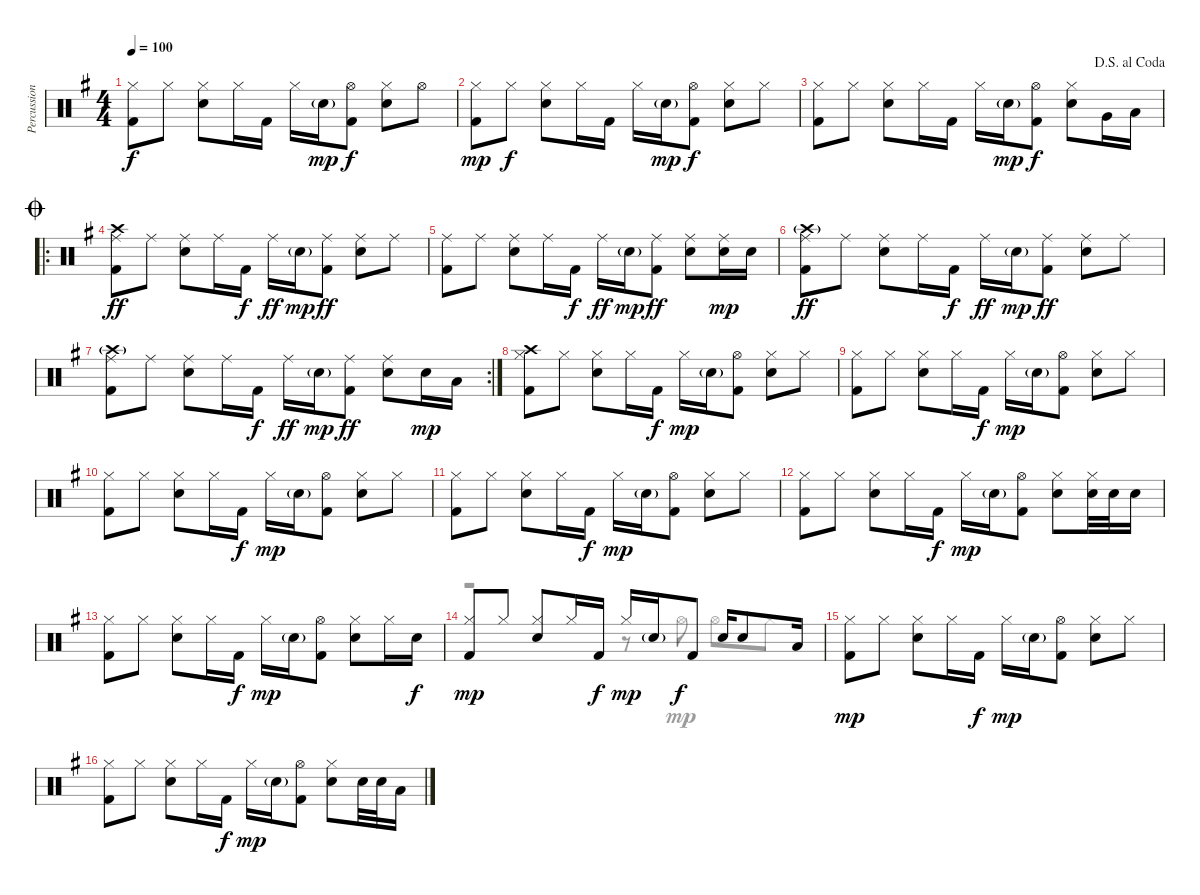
\track ("Percussion" "Percussion") {instrument percussion}
\staff {score}
\articulation defaults
\voice
\ts (4 4)
\tempo 100
\clef neutral
\ks g
("Hi-Hat (closed)" "Kick (hit) 2").8{dy f} "Hi-Hat (closed)".8 ("Hi-Hat (closed)" "Electric Snare (hit)").8 "Hi-Hat (closed)".16 "Kick (hit) 2".16 "Hi-Hat (closed)".16 "Electric Snare (hit)"{g}.16{dy mp} ("Hi-Hat (open)" "Kick (hit) 2").8{dy f} ("Hi-Hat (closed)" "Electric Snare (hit)").8 "Hi-Hat (open)".8 |
("Hi-Hat (closed)" "Kick (hit) 2").8{dy mp} "Hi-Hat (closed)".8{dy f} ("Hi-Hat (closed)" "Electric Snare (hit)").8 "Hi-Hat (closed)".16 "Kick (hit) 2".16 "Hi-Hat (closed)".16 "Electric Snare (hit)"{g}.16{dy mp} ("Hi-Hat (open)" "Kick (hit) 2").8{dy f} ("Hi-Hat (closed)" "Electric Snare (hit)").8 "Hi-Hat (closed)".8 |
\jump dalsegnoalcoda
("Hi-Hat (closed)" "Kick (hit) 2").8 "Hi-Hat (closed)".8 ("Hi-Hat (closed)" "Electric Snare (hit)").8 "Hi-Hat (closed)".16 "Kick (hit) 2".16 "Hi-Hat (closed)".16 "Electric Snare (hit)"{g}.16{dy mp} ("Hi-Hat (open)" "Kick (hit) 2").8{dy f} ("Hi-Hat (closed)" "Electric Snare (hit)").8 "Very Low Tom (hit)".16 "Low Floor Tom (hit)".16 |
\ro
\jump coda
("Crash high (hit)" "Ride (middle)" "Kick (hit) 2").8{dy ff} "Ride (middle)".8 ("Ride (middle)" "Electric Snare (hit)").8 "Ride (middle)".16 "Kick (hit) 2".16{dy f} "Ride (middle)".16{dy ff} "Electric Snare (hit)"{g}.16{dy mp} ("Ride (middle)" "Kick (hit) 2").8{dy ff} ("Ride (middle)" "Electric Snare (hit)").8 "Ride (middle)".8 |
("Ride (middle)" "Kick (hit) 2").8 "Ride (middle)".8 ("Ride (middle)" "Electric Snare (hit)").8 "Ride (middle)".16 "Kick (hit) 2".16{dy f} "Ride (middle)".16{dy ff} "Electric Snare (hit)"{g}.16{dy mp} ("Ride (middle)" "Kick (hit) 2").8{dy ff} ("Ride (middle)" "Electric Snare (hit)").8 ("Ride (middle)" "Electric Snare (hit)").16{dy mp} "Electric Snare (hit)".16 |
("Crash high (hit)"{g} "Ride (middle)" "Kick (hit) 2").8{dy ff} "Ride (middle)".8 ("Ride (middle)" "Electric Snare (hit)").8 "Ride (middle)".16 "Kick (hit) 2".16{dy f} "Ride (middle)".16{dy ff} "Electric Snare (hit)"{g}.16{dy mp} ("Ride (middle)" "Kick (hit) 2").8{dy ff} ("Ride (middle)" "Electric Snare (hit)").8 "Ride (middle)".8 |
\rc 2
("Crash high (hit)"{g} "Ride (middle)" "Kick (hit) 2").8 "Ride (middle)".8 ("Ride (middle)" "Electric Snare (hit)").8 "Ride (middle)".16 "Kick (hit) 2".16{dy f} "Ride (middle)".16{dy ff} "Electric Snare (hit)"{g}.16{dy mp} ("Ride (middle)" "Kick (hit) 2").8{dy ff} ("Ride (middle)" "Electric Snare (hit)").8 "Electric Snare (hit)".16{dy mp} "Low Floor Tom (hit)".16 |
("Crash high (hit)" "Hi-Hat (closed)" "Kick (hit) 2").8 "Hi-Hat (closed)".8 ("Hi-Hat (closed)" "Electric Snare (hit)").8 "Hi-Hat (closed)".16 "Kick (hit) 2".16{dy f} "Hi-Hat (closed)".16{dy mp} "Electric Snare (hit)"{g}.16 ("Hi-Hat (open)" "Kick (hit) 2").8 ("Hi-Hat (closed)" "Electric Snare (hit)").8 "Hi-Hat (closed)".8 |
("Hi-Hat (closed)" "Kick (hit) 2").8 "Hi-Hat (closed)".8 ("Hi-Hat (closed)" "Electric Snare (hit)").8 "Hi-Hat (closed)".16 "Kick (hit) 2".16{dy f} "Hi-Hat (closed)".16{dy mp} "Electric Snare (hit)"{g}.16 ("Hi-Hat (open)" "Kick (hit) 2").8 ("Hi-Hat (closed)" "Electric Snare (hit)").8 "Hi-Hat (closed)".8 |
("Hi-Hat (closed)" "Kick (hit) 2").8 "Hi-Hat (closed)".8 ("Hi-Hat (closed)" "Electric Snare (hit)").8 "Hi-Hat (closed)".16 "Kick (hit) 2".16{dy f} "Hi-Hat (closed)".16{dy mp} "Electric Snare (hit)"{g}.16 ("Hi-Hat (open)" "Kick (hit) 2").8 ("Hi-Hat (closed)" "Electric Snare (hit)").8 "Hi-Hat (closed)".8 |
("Hi-Hat (closed)" "Kick (hit) 2").8 "Hi-Hat (closed)".8 ("Hi-Hat (closed)" "Electric Snare (hit)").8 "Hi-Hat (closed)".16 "Kick (hit) 2".16{dy f} "Hi-Hat (closed)".16{dy mp} "Electric Snare (hit)"{g}.16 ("Hi-Hat (open)" "Kick (hit) 2").8 ("Hi-Hat (closed)" "Electric Snare (hit)").8 "Hi-Hat (closed)".8 |
("Hi-Hat (closed)" "Kick (hit) 2").8 "Hi-Hat (closed)".8 ("Hi-Hat (closed)" "Electric Snare (hit)").8 "Hi-Hat (closed)".16 "Kick (hit) 2".16{dy f} "Hi-Hat (closed)".16{dy mp} "Electric Snare (hit)"{g}.16 ("Hi-Hat (open)" "Kick (hit) 2").8 ("Hi-Hat (closed)" "Electric Snare (hit)").8 ("Hi-Hat (closed)" "Electric Snare (hit)").32 "Electric Snare (hit)".32 "Electric Snare (hit)".16 |
("Hi-Hat (closed)" "Kick (hit) 2").8 "Hi-Hat (closed)".8 ("Hi-Hat (closed)" "Electric Snare (hit)").8 "Hi-Hat (closed)".16 "Kick (hit) 2".16{dy f} "Hi-Hat (closed)".16{dy mp} "Electric Snare (hit)"{g}.16 ("Hi-Hat (open)" "Kick (hit) 2").8 ("Hi-Hat (closed)" "Electric Snare (hit)").8 "Hi-Hat (closed)".16 "Electric Snare (hit)".16{dy f} |
("Hi-Hat (closed)" "Kick (hit) 2").8{dy mp} "Hi-Hat (closed)".8 ("Hi-Hat (closed)" "Electric Snare (hit)").8 "Hi-Hat (closed)".16 "Kick (hit) 2".16{dy f} "Hi-Hat (closed)".16{dy mp} "Electric Snare (hit)"{g}.16 "Kick (hit) 2".8{dy f} "Electric Snare (hit)".16 "Electric Snare (hit)".8 "Low Floor Tom (hit)".16 |
("Hi-Hat (closed)" "Kick (hit) 2").8{dy mp} "Hi-Hat (closed)".8 ("Hi-Hat (closed)" "Electric Snare (hit)").8 "Hi-Hat (closed)".16 "Kick (hit) 2".16{dy f} "Hi-Hat (closed)".16{dy mp} "Electric Snare (hit)"{g}.16 ("Hi-Hat (open)" "Kick (hit) 2").8 ("Hi-Hat (closed)" "Electric Snare (hit)").8 "Hi-Hat (closed)".8 |
("Hi-Hat (closed)" "Kick (hit) 2").8 "Hi-Hat (closed)".8 ("Hi-Hat (closed)" "Electric Snare (hit)").8 "Hi-Hat (closed)".16 "Kick (hit) 2".16{dy f} "Hi-Hat (closed)".16{dy mp} "Electric Snare (hit)"{g}.16 ("Hi-Hat (open)" "Kick (hit) 2").8 ("Hi-Hat (closed)" "Electric Snare (hit)").8 "Electric Snare (hit)".32 "Electric Snare (hit)".32 "Low Floor Tom (hit)".16
\voice
\clef neutral
\ottava regular
\simile none
\ks g
|
|
|
|
|
|
|
|
|
|
|
|
|
r.2 r.8 "Hi-Hat (open)".8{dy mp} "Hi-Hat (open)".8 "Hi-Hat (closed)".8 |
|
